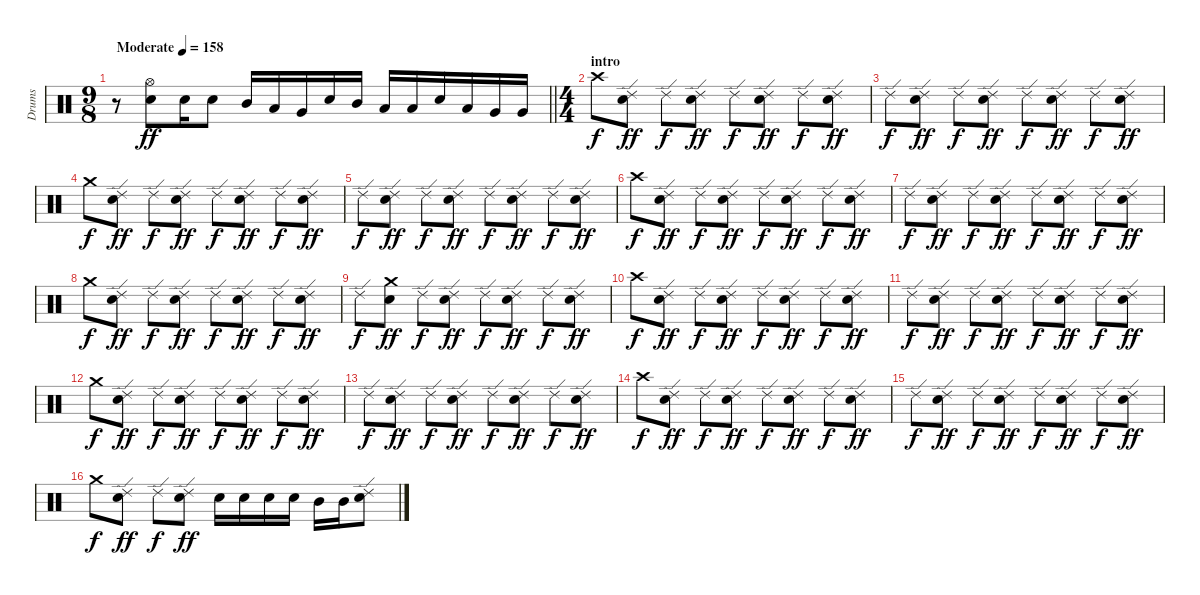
\track ("Drums" "Drums") {instrument percussion}
\staff {score}
\articulation defaults
\ts (9 8)
\tempo (158 "Moderate")
\clef neutral
\barLineRight lightlight
\ks c
r.8{dy ff} ("Hi-Hat (open)" "Snare (hit) 2").8 "Snare (hit) 2".16 "Snare (hit) 2".8 "Mid Tom (hit)".16 "Low Tom (hit)".16 "Very Low Tom (hit)".16 "Snare (hit) 2".16 "Mid Tom (hit)".16 "Low Tom (hit)".16 "Low Tom (hit)".16 "Snare (hit) 2".16 "Low Tom (hit)".16 "Very Low Tom (hit)".16 "Very Low Tom (hit)".16 |
\ts (4 4)
\section ("" "intro")
"Crash high (hit)".8{dy f} ("Ride (edge) 2" "Snare (hit) 2").8{dy ff} "Ride (edge) 2".8{dy f} ("Ride (edge) 2" "Snare (hit) 2").8{dy ff} "Ride (edge) 2".8{dy f} ("Ride (edge) 2" "Snare (hit) 2").8{dy ff} "Ride (edge) 2".8{dy f} ("Ride (edge) 2" "Snare (hit) 2").8{dy ff} |
"Ride (edge) 2".8{dy f} ("Ride (edge) 2" "Snare (hit) 2").8{dy ff} "Ride (edge) 2".8{dy f} ("Ride (edge) 2" "Snare (hit) 2").8{dy ff} "Ride (edge) 2".8{dy f} ("Ride (edge) 2" "Snare (hit) 2").8{dy ff} "Ride (edge) 2".8{dy f} ("Ride (edge) 2" "Snare (hit) 2").8{dy ff} |
"Crash medium (hit)".8{dy f} ("Ride (edge) 2" "Snare (hit) 2").8{dy ff} "Ride (edge) 2".8{dy f} ("Ride (edge) 2" "Snare (hit) 2").8{dy ff} "Ride (edge) 2".8{dy f} ("Ride (edge) 2" "Snare (hit) 2").8{dy ff} "Ride (edge) 2".8{dy f} ("Ride (edge) 2" "Snare (hit) 2").8{dy ff} |
"Ride (edge) 2".8{dy f} ("Ride (edge) 2" "Snare (hit) 2").8{dy ff} "Ride (edge) 2".8{dy f} ("Ride (edge) 2" "Snare (hit) 2").8{dy ff} "Ride (edge) 2".8{dy f} ("Ride (edge) 2" "Snare (hit) 2").8{dy ff} "Ride (edge) 2".8{dy f} ("Ride (edge) 2" "Snare (hit) 2").8{dy ff} |
"Crash high (hit)".8{dy f} ("Ride (edge) 2" "Snare (hit) 2").8{dy ff} "Ride (edge) 2".8{dy f} ("Ride (edge) 2" "Snare (hit) 2").8{dy ff} "Ride (edge) 2".8{dy f} ("Ride (edge) 2" "Snare (hit) 2").8{dy ff} "Ride (edge) 2".8{dy f} ("Ride (edge) 2" "Snare (hit) 2").8{dy ff} |
"Ride (edge) 2".8{dy f} ("Ride (edge) 2" "Snare (hit) 2").8{dy ff} "Ride (edge) 2".8{dy f} ("Ride (edge) 2" "Snare (hit) 2").8{dy ff} "Ride (edge) 2".8{dy f} ("Ride (edge) 2" "Snare (hit) 2").8{dy ff} "Ride (edge) 2".8{dy f} ("Ride (edge) 2" "Snare (hit) 2").8{dy ff} |
"Crash medium (hit)".8{dy f} ("Ride (edge) 2" "Snare (hit) 2").8{dy ff} "Ride (edge) 2".8{dy f} ("Ride (edge) 2" "Snare (hit) 2").8{dy ff} "Ride (edge) 2".8{dy f} ("Ride (edge) 2" "Snare (hit) 2").8{dy ff} "Ride (edge) 2".8{dy f} ("Ride (edge) 2" "Snare (hit) 2").8{dy ff} |
"Ride (edge) 2".8{dy f} ("Crash medium (hit)" "Snare (hit) 2").8{dy ff} "Ride (edge) 2".8{dy f} ("Ride (edge) 2" "Snare (hit) 2").8{dy ff} "Ride (edge) 2".8{dy f} ("Ride (edge) 2" "Snare (hit) 2").8{dy ff} "Ride (edge) 2".8{dy f} ("Ride (edge) 2" "Snare (hit) 2").8{dy ff} |
"Crash high (hit)".8{dy f} ("Ride (edge) 2" "Snare (hit) 2").8{dy ff} "Ride (edge) 2".8{dy f} ("Ride (edge) 2" "Snare (hit) 2").8{dy ff} "Ride (edge) 2".8{dy f} ("Ride (edge) 2" "Snare (hit) 2").8{dy ff} "Ride (edge) 2".8{dy f} ("Ride (edge) 2" "Snare (hit) 2").8{dy ff} |
"Ride (edge) 2".8{dy f} ("Ride (edge) 2" "Snare (hit) 2").8{dy ff} "Ride (edge) 2".8{dy f} ("Ride (edge) 2" "Snare (hit) 2").8{dy ff} "Ride (edge) 2".8{dy f} ("Ride (edge) 2" "Snare (hit) 2").8{dy ff} "Ride (edge) 2".8{dy f} ("Ride (edge) 2" "Snare (hit) 2").8{dy ff} |
"Crash medium (hit)".8{dy f} ("Ride (edge) 2" "Snare (hit) 2").8{dy ff} "Ride (edge) 2".8{dy f} ("Ride (edge) 2" "Snare (hit) 2").8{dy ff} "Ride (edge) 2".8{dy f} ("Ride (edge) 2" "Snare (hit) 2").8{dy ff} "Ride (edge) 2".8{dy f} ("Ride (edge) 2" "Snare (hit) 2").8{dy ff} |
"Ride (edge) 2".8{dy f} ("Ride (edge) 2" "Snare (hit) 2").8{dy ff} "Ride (edge) 2".8{dy f} ("Ride (edge) 2" "Snare (hit) 2").8{dy ff} "Ride (edge) 2".8{dy f} ("Ride (edge) 2" "Snare (hit) 2").8{dy ff} "Ride (edge) 2".8{dy f} ("Ride (edge) 2" "Snare (hit) 2").8{dy ff} |
"Crash high (hit)".8{dy f} ("Ride (edge) 2" "Snare (hit) 2").8{dy ff} "Ride (edge) 2".8{dy f} ("Ride (edge) 2" "Snare (hit) 2").8{dy ff} "Ride (edge) 2".8{dy f} ("Ride (edge) 2" "Snare (hit) 2").8{dy ff} "Ride (edge) 2".8{dy f} ("Ride (edge) 2" "Snare (hit) 2").8{dy ff} |
"Ride (edge) 2".8{dy f} ("Ride (edge) 2" "Snare (hit) 2").8{dy ff} "Ride (edge) 2".8{dy f} ("Ride (edge) 2" "Snare (hit) 2").8{dy ff} "Ride (edge) 2".8{dy f} ("Ride (edge) 2" "Snare (hit) 2").8{dy ff} "Ride (edge) 2".8{dy f} ("Ride (edge) 2" "Snare (hit) 2").8{dy ff} |
"Crash medium (hit)".8{dy f} ("Ride (edge) 2" "Snare (hit) 2").8{dy ff} "Ride (edge) 2".8{dy f} ("Ride (edge) 2" "Snare (hit) 2").8{dy ff} "Snare (hit) 2".16 "Snare (hit) 2".16 "Snare (hit) 2".16 "Snare (hit) 2".16 "Mid Tom (hit)".16 "Mid Tom (hit)".16 ("Ride (edge) 2" "Snare (hit) 2").8
